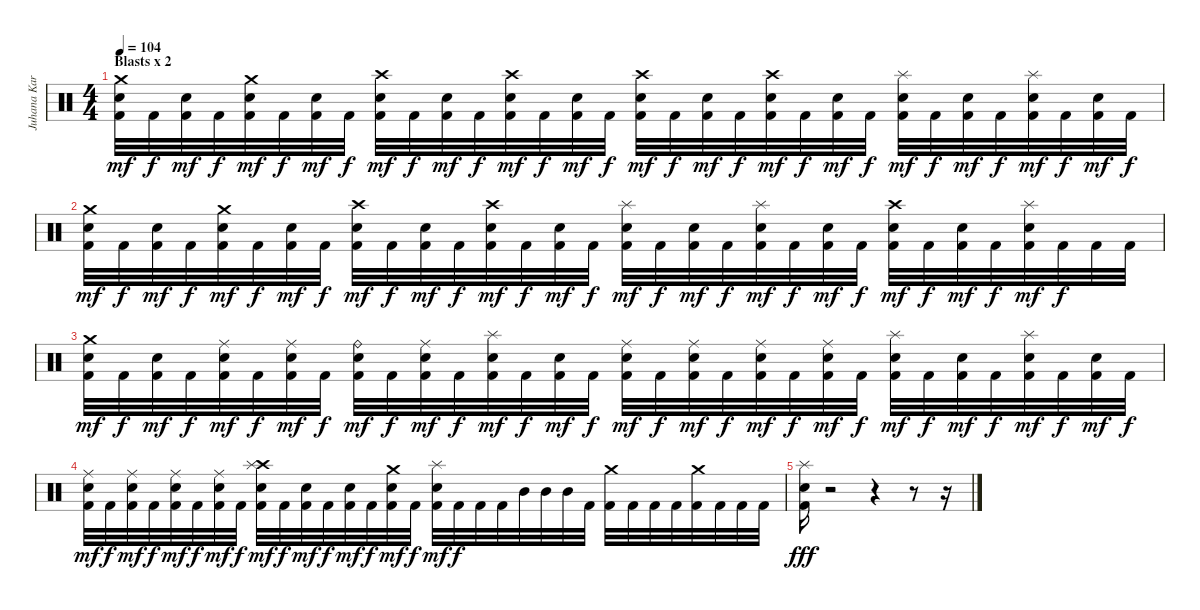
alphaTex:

\track ("Juhana Karlsson" "Juhana Kar") {instrument percussion}
\staff {score}
\articulation defaults
\ts (4 4)
\section ("" "Blasts x 2")
\tempo 104
\clef neutral
\ks c
("Crash medium (hit)" "Electric Snare (hit)" "Kick (hit) 2").32{dy mf} "Kick (hit) 2".32{dy f} ("Electric Snare (hit)" "Kick (hit) 2").32{dy mf} "Kick (hit) 2".32{dy f} ("Crash medium (hit)" "Electric Snare (hit)" "Kick (hit) 2").32{dy mf} "Kick (hit) 2".32{dy f} ("Electric Snare (hit)" "Kick (hit) 2").32{dy mf} "Kick (hit) 2".32{dy f} ("Crash high (hit)" "Electric Snare (hit)" "Kick (hit) 2").32{dy mf} "Kick (hit) 2".32{dy f} ("Electric Snare (hit)" "Kick (hit) 2").32{dy mf} "Kick (hit) 2".32{dy f} ("Crash high (hit)" "Electric Snare (hit)" "Kick (hit) 2").32{dy mf} "Kick (hit) 2".32{dy f} ("Electric Snare (hit)" "Kick (hit) 2").32{dy mf} "Kick (hit) 2".32{dy f} ("Crash high (hit)" "Electric Snare (hit)" "Kick (hit) 2").32{dy mf} "Kick (hit) 2".32{dy f} ("Electric Snare (hit)" "Kick (hit) 2").32{dy mf} "Kick (hit) 2".32{dy f} ("Crash high (hit)" "Electric Snare (hit)" "Kick (hit) 2").32{dy mf} "Kick (hit) 2".32{dy f} ("Electric Snare (hit)" "Kick (hit) 2").32{dy mf} "Kick (hit) 2".32{dy f} ("Splash (hit)" "Electric Snare (hit)" "Kick (hit) 2").32{dy mf} "Kick (hit) 2".32{dy f} ("Electric Snare (hit)" "Kick (hit) 2").32{dy mf} "Kick (hit) 2".32{dy f} ("Splash (hit)" "Electric Snare (hit)" "Kick (hit) 2").32{dy mf} "Kick (hit) 2".32{dy f} ("Electric Snare (hit)" "Kick (hit) 2").32{dy mf} "Kick (hit) 2".32{dy f} |
("Crash medium (hit)" "Electric Snare (hit)" "Kick (hit) 2").32{dy mf} "Kick (hit) 2".32{dy f} ("Electric Snare (hit)" "Kick (hit) 2").32{dy mf} "Kick (hit) 2".32{dy f} ("Crash medium (hit)" "Electric Snare (hit)" "Kick (hit) 2").32{dy mf} "Kick (hit) 2".32{dy f} ("Electric Snare (hit)" "Kick (hit) 2").32{dy mf} "Kick (hit) 2".32{dy f} ("Crash high (hit)" "Electric Snare (hit)" "Kick (hit) 2").32{dy mf} "Kick (hit) 2".32{dy f} ("Electric Snare (hit)" "Kick (hit) 2").32{dy mf} "Kick (hit) 2".32{dy f} ("Crash high (hit)" "Electric Snare (hit)" "Kick (hit) 2").32{dy mf} "Kick (hit) 2".32{dy f} ("Electric Snare (hit)" "Kick (hit) 2").32{dy mf} "Kick (hit) 2".32{dy f} ("Splash (hit)" "Electric Snare (hit)" "Kick (hit) 2").32{dy mf} "Kick (hit) 2".32{dy f} ("Electric Snare (hit)" "Kick (hit) 2").32{dy mf} "Kick (hit) 2".32{dy f} ("Splash (hit)" "Electric Snare (hit)" "Kick (hit) 2").32{dy mf} "Kick (hit) 2".32{dy f} ("Electric Snare (hit)" "Kick (hit) 2").32{dy mf} "Kick (hit) 2".32{dy f} ("Crash high (hit)" "Electric Snare (hit)" "Kick (hit) 2").32{dy mf} "Kick (hit) 2".32{dy f} ("Electric Snare (hit)" "Kick (hit) 2").32{dy mf} "Kick (hit) 2".32{dy f} ("Splash (hit)" "Electric Snare (hit)" "Kick (hit) 2").32{dy mf} "Kick (hit) 2".32{dy f} "Kick (hit) 2".32 "Kick (hit) 2".32 |
("Crash medium (hit)" "Electric Snare (hit)" "Kick (hit) 2").32{dy mf} "Kick (hit) 2".32{dy f} ("Electric Snare (hit)" "Kick (hit) 2").32{dy mf} "Kick (hit) 2".32{dy f} ("Ride (middle)" "Electric Snare (hit)" "Kick (hit) 2").32{dy mf} "Kick (hit) 2".32{dy f} ("Ride (middle)" "Electric Snare (hit)" "Kick (hit) 2").32{dy mf} "Kick (hit) 2".32{dy f} ("Ride (bell)" "Electric Snare (hit)" "Kick (hit) 2").32{dy mf} "Kick (hit) 2".32{dy f} ("Ride (middle)" "Electric Snare (hit)" "Kick (hit) 2").32{dy mf} "Kick (hit) 2".32{dy f} ("Splash (hit)" "Electric Snare (hit)" "Kick (hit) 2").32{dy mf} "Kick (hit) 2".32{dy f} ("Electric Snare (hit)" "Kick (hit) 2").32{dy mf} "Kick (hit) 2".32{dy f} ("Ride (middle)" "Electric Snare (hit)" "Kick (hit) 2").32{dy mf} "Kick (hit) 2".32{dy f} ("Ride (middle)" "Electric Snare (hit)" "Kick (hit) 2").32{dy mf} "Kick (hit) 2".32{dy f} ("Ride (middle)" "Electric Snare (hit)" "Kick (hit) 2").32{dy mf} "Kick (hit) 2".32{dy f} ("Ride (middle)" "Electric Snare (hit)" "Kick (hit) 2").32{dy mf} "Kick (hit) 2".32{dy f} ("Splash (hit)" "Electric Snare (hit)" "Kick (hit) 2").32{dy mf} "Kick (hit) 2".32{dy f} ("Electric Snare (hit)" "Kick (hit) 2").32{dy mf} "Kick (hit) 2".32{dy f} ("Splash (hit)" "Electric Snare (hit)" "Kick (hit) 2").32{dy mf} "Kick (hit) 2".32{dy f} ("Electric Snare (hit)" "Kick (hit) 2").32{dy mf} "Kick (hit) 2".32{dy f} |
("Ride (middle)" "Electric Snare (hit)" "Kick (hit) 2").32{dy mf} "Kick (hit) 2".32{dy f} ("Ride (middle)" "Electric Snare (hit)" "Kick (hit) 2").32{dy mf} "Kick (hit) 2".32{dy f} ("Ride (middle)" "Electric Snare (hit)" "Kick (hit) 2").32{dy mf} "Kick (hit) 2".32{dy f} ("Ride (middle)" "Electric Snare (hit)" "Kick (hit) 2").32{dy mf} "Kick (hit) 2".32{dy f} ("Crash high (hit)" "Splash (hit)" "Electric Snare (hit)" "Kick (hit) 2").32{dy mf} "Kick (hit) 2".32{dy f} ("Electric Snare (hit)" "Kick (hit) 2").32{dy mf} "Kick (hit) 2".32{dy f} ("Electric Snare (hit)" "Kick (hit) 2").32{dy mf} "Kick (hit) 2".32{dy f} ("Crash medium (hit)" "Electric Snare (hit)" "Kick (hit) 2").32{dy mf} "Kick (hit) 2".32{dy f} ("Splash (hit)" "Electric Snare (hit)" "Kick (hit) 2").32{dy mf} "Kick (hit) 2".32{dy f} "Kick (hit) 2".32 "Kick (hit) 2".32 "Mid Tom (hit)".32 "Mid Tom (hit)".32 "Mid Tom (hit)".32 "Kick (hit) 2".32 ("Crash medium (hit)" "Kick (hit) 2").32 "Kick (hit) 2".32 "Kick (hit) 2".32 "Kick (hit) 2".32 ("Crash medium (hit)" "Kick (hit) 2").32 "Kick (hit) 2".32 "Kick (hit) 2".32 "Kick (hit) 2".32 |
("Splash (hit)" "Electric Snare (hit)" "Kick (hit) 2").16{dy fff} r.2 r.4 r.8 r.16
